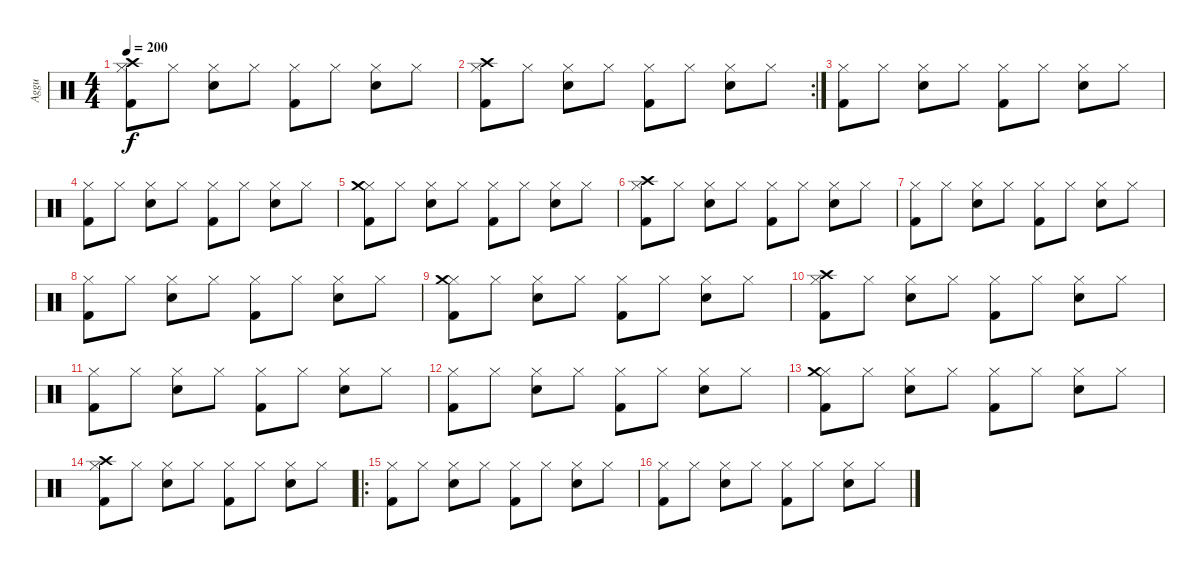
\track ("Aggu" "Aggu") {instrument percussion}
\staff {score}
\articulation defaults
\ts (4 4)
\tempo 200
\clef neutral
\ks c
("Hi-Hat (closed)" "Crash high (hit)" "Kick (hit) 2").8{dy f} "Hi-Hat (closed)".8 ("Hi-Hat (closed)" "Snare (hit) 2").8 "Hi-Hat (closed)".8 ("Hi-Hat (closed)" "Kick (hit) 2").8 "Hi-Hat (closed)".8 ("Hi-Hat (closed)" "Snare (hit) 2").8 "Hi-Hat (closed)".8 |
\rc 2
("Hi-Hat (closed)" "Crash high (hit)" "Kick (hit) 2").8 "Hi-Hat (closed)".8 ("Hi-Hat (closed)" "Snare (hit) 2").8 "Hi-Hat (closed)".8 ("Hi-Hat (closed)" "Kick (hit) 2").8 "Hi-Hat (closed)".8 ("Hi-Hat (closed)" "Snare (hit) 2").8 "Hi-Hat (closed)".8 |
("Hi-Hat (closed)" "Kick (hit) 2").8 "Hi-Hat (closed)".8 ("Hi-Hat (closed)" "Snare (hit) 2").8 "Hi-Hat (closed)".8 ("Hi-Hat (closed)" "Kick (hit) 2").8 "Hi-Hat (closed)".8 ("Hi-Hat (closed)" "Snare (hit) 2").8 "Hi-Hat (closed)".8 |
("Hi-Hat (closed)" "Kick (hit) 2").8 "Hi-Hat (closed)".8 ("Hi-Hat (closed)" "Snare (hit) 2").8 "Hi-Hat (closed)".8 ("Hi-Hat (closed)" "Kick (hit) 2").8 "Hi-Hat (closed)".8 ("Hi-Hat (closed)" "Snare (hit) 2").8 "Hi-Hat (closed)".8 |
("Hi-Hat (closed)" "Crash medium (hit)" "Kick (hit) 2").8 "Hi-Hat (closed)".8 ("Hi-Hat (closed)" "Snare (hit) 2").8 "Hi-Hat (closed)".8 ("Hi-Hat (closed)" "Kick (hit) 2").8 "Hi-Hat (closed)".8 ("Hi-Hat (closed)" "Snare (hit) 2").8 "Hi-Hat (closed)".8 |
("Hi-Hat (closed)" "Crash high (hit)" "Kick (hit) 2").8 "Hi-Hat (closed)".8 ("Hi-Hat (closed)" "Snare (hit) 2").8 "Hi-Hat (closed)".8 ("Hi-Hat (closed)" "Kick (hit) 2").8 "Hi-Hat (closed)".8 ("Hi-Hat (closed)" "Snare (hit) 2").8 "Hi-Hat (closed)".8 |
("Hi-Hat (closed)" "Kick (hit) 2").8 "Hi-Hat (closed)".8 ("Hi-Hat (closed)" "Snare (hit) 2").8 "Hi-Hat (closed)".8 ("Hi-Hat (closed)" "Kick (hit) 2").8 "Hi-Hat (closed)".8 ("Hi-Hat (closed)" "Snare (hit) 2").8 "Hi-Hat (closed)".8 |
("Hi-Hat (closed)" "Kick (hit) 2").8 "Hi-Hat (closed)".8 ("Hi-Hat (closed)" "Snare (hit) 2").8 "Hi-Hat (closed)".8 ("Hi-Hat (closed)" "Kick (hit) 2").8 "Hi-Hat (closed)".8 ("Hi-Hat (closed)" "Snare (hit) 2").8 "Hi-Hat (closed)".8 |
("Hi-Hat (closed)" "Crash medium (hit)" "Kick (hit) 2").8 "Hi-Hat (closed)".8 ("Hi-Hat (closed)" "Snare (hit) 2").8 "Hi-Hat (closed)".8 ("Hi-Hat (closed)" "Kick (hit) 2").8 "Hi-Hat (closed)".8 ("Hi-Hat (closed)" "Snare (hit) 2").8 "Hi-Hat (closed)".8 |
("Hi-Hat (closed)" "Crash high (hit)" "Kick (hit) 2").8 "Hi-Hat (closed)".8 ("Hi-Hat (closed)" "Snare (hit) 2").8 "Hi-Hat (closed)".8 ("Hi-Hat (closed)" "Kick (hit) 2").8 "Hi-Hat (closed)".8 ("Hi-Hat (closed)" "Snare (hit) 2").8 "Hi-Hat (closed)".8 |
("Hi-Hat (closed)" "Kick (hit) 2").8 "Hi-Hat (closed)".8 ("Hi-Hat (closed)" "Snare (hit) 2").8 "Hi-Hat (closed)".8 ("Hi-Hat (closed)" "Kick (hit) 2").8 "Hi-Hat (closed)".8 ("Hi-Hat (closed)" "Snare (hit) 2").8 "Hi-Hat (closed)".8 |
("Hi-Hat (closed)" "Kick (hit) 2").8 "Hi-Hat (closed)".8 ("Hi-Hat (closed)" "Snare (hit) 2").8 "Hi-Hat (closed)".8 ("Hi-Hat (closed)" "Kick (hit) 2").8 "Hi-Hat (closed)".8 ("Hi-Hat (closed)" "Snare (hit) 2").8 "Hi-Hat (closed)".8 |
("Hi-Hat (closed)" "Crash medium (hit)" "Kick (hit) 2").8 "Hi-Hat (closed)".8 ("Hi-Hat (closed)" "Snare (hit) 2").8 "Hi-Hat (closed)".8 ("Hi-Hat (closed)" "Kick (hit) 2").8 "Hi-Hat (closed)".8 ("Hi-Hat (closed)" "Snare (hit) 2").8 "Hi-Hat (closed)".8 |
("Hi-Hat (closed)" "Crash high (hit)" "Kick (hit) 2").8 "Hi-Hat (closed)".8 ("Hi-Hat (closed)" "Snare (hit) 2").8 "Hi-Hat (closed)".8 ("Hi-Hat (closed)" "Kick (hit) 2").8 "Hi-Hat (closed)".8 ("Hi-Hat (closed)" "Snare (hit) 2").8 "Hi-Hat (closed)".8 |
\ro
("Hi-Hat (closed)" "Kick (hit) 2").8 "Hi-Hat (closed)".8 ("Hi-Hat (closed)" "Snare (hit) 2").8 "Hi-Hat (closed)".8 ("Hi-Hat (closed)" "Kick (hit) 2").8 "Hi-Hat (closed)".8 ("Hi-Hat (closed)" "Snare (hit) 2").8 "Hi-Hat (closed)".8 |
("Hi-Hat (closed)" "Kick (hit) 2").8 "Hi-Hat (closed)".8 ("Hi-Hat (closed)" "Snare (hit) 2").8 "Hi-Hat (closed)".8 ("Hi-Hat (closed)" "Kick (hit) 2").8 "Hi-Hat (closed)".8 ("Hi-Hat (closed)" "Snare (hit) 2").8 "Hi-Hat (closed)".8
